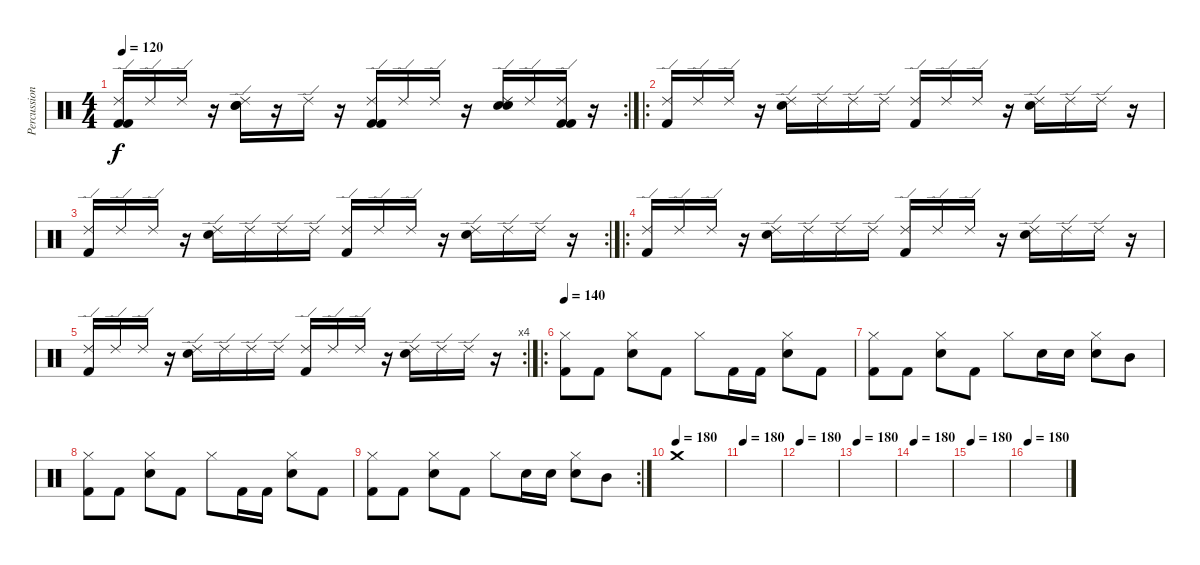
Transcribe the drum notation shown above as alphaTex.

\track ("Percussions" "Percussion") {instrument percussion}
\staff {score}
\articulation defaults
\rc 2
\ts (4 4)
\tempo 120
\clef neutral
\ks c
("Ride (edge) 2" "Kick (hit) 2" "Kick (hit) 2").16{dy f} "Ride (edge) 2".16 "Ride (edge) 2".16 r.16 ("Ride (edge) 2" "Electric Snare (hit)" "Electric Snare (hit)").16 r.16 "Ride (edge) 2".16 r.16 ("Ride (edge) 2" "Kick (hit) 2" "Kick (hit) 2").16 "Ride (edge) 2".16 "Ride (edge) 2".16 r.16 ("Ride (edge) 2" "Electric Snare (hit)" "Electric Snare (hit)").16 "Ride (edge) 2".16 ("Ride (edge) 2" "Kick (hit) 2" "Kick (hit) 2").16 r.16 |
\ro
("Ride (edge) 2" "Kick (hit) 2").16 "Ride (edge) 2".16 "Ride (edge) 2".16 r.16 ("Ride (edge) 2" "Electric Snare (hit)").16 "Ride (edge) 2".16 "Ride (edge) 2".16 "Ride (edge) 2".16 ("Ride (edge) 2" "Kick (hit) 2").16 "Ride (edge) 2".16 "Ride (edge) 2".16 r.16 ("Ride (edge) 2" "Electric Snare (hit)").16 "Ride (edge) 2".16 "Ride (edge) 2".16 r.16 |
\rc 2
("Ride (edge) 2" "Kick (hit) 2").16 "Ride (edge) 2".16 "Ride (edge) 2".16 r.16 ("Ride (edge) 2" "Electric Snare (hit)").16 "Ride (edge) 2".16 "Ride (edge) 2".16 "Ride (edge) 2".16 ("Ride (edge) 2" "Kick (hit) 2").16 "Ride (edge) 2".16 "Ride (edge) 2".16 r.16 ("Ride (edge) 2" "Electric Snare (hit)").16 "Ride (edge) 2".16 "Ride (edge) 2".16 r.16 |
\ro
("Ride (edge) 2" "Kick (hit) 2").16 "Ride (edge) 2".16 "Ride (edge) 2".16 r.16 ("Ride (edge) 2" "Electric Snare (hit)").16 "Ride (edge) 2".16 "Ride (edge) 2".16 "Ride (edge) 2".16 ("Ride (edge) 2" "Kick (hit) 2").16 "Ride (edge) 2".16 "Ride (edge) 2".16 r.16 ("Ride (edge) 2" "Electric Snare (hit)").16 "Ride (edge) 2".16 "Ride (edge) 2".16 r.16 |
\rc 4
("Ride (edge) 2" "Kick (hit) 2").16 "Ride (edge) 2".16 "Ride (edge) 2".16 r.16 ("Ride (edge) 2" "Electric Snare (hit)").16 "Ride (edge) 2".16 "Ride (edge) 2".16 "Ride (edge) 2".16 ("Ride (edge) 2" "Kick (hit) 2").16 "Ride (edge) 2".16 "Ride (edge) 2".16 r.16 ("Ride (edge) 2" "Electric Snare (hit)").16 "Ride (edge) 2".16 "Ride (edge) 2".16 r.16 |
\ro
\tempo 140
("Kick (hit) 2" "Hi-Hat (closed)").8 "Kick (hit) 2".8 ("Electric Snare (hit)" "Hi-Hat (closed)").8 "Kick (hit) 2".8 "Hi-Hat (closed)".8 "Kick (hit) 2".16 "Kick (hit) 2".16 ("Electric Snare (hit)" "Hi-Hat (closed)").8 "Kick (hit) 2".8 |
("Kick (hit) 2" "Hi-Hat (closed)").8 "Kick (hit) 2".8 ("Electric Snare (hit)" "Hi-Hat (closed)").8 "Kick (hit) 2".8 "Hi-Hat (closed)".8 "Electric Snare (hit)".16 "Electric Snare (hit)".16 ("Snare (hit) 2" "Hi-Hat (closed)").8 "Mid Tom (hit)".8 |
("Kick (hit) 2" "Hi-Hat (closed)").8 "Kick (hit) 2".8 ("Electric Snare (hit)" "Hi-Hat (closed)").8 "Kick (hit) 2".8 "Hi-Hat (closed)".8 "Kick (hit) 2".16 "Kick (hit) 2".16 ("Electric Snare (hit)" "Hi-Hat (closed)").8 "Kick (hit) 2".8 |
\rc 2
("Kick (hit) 2" "Hi-Hat (closed)").8 "Kick (hit) 2".8 ("Electric Snare (hit)" "Hi-Hat (closed)").8 "Kick (hit) 2".8 "Hi-Hat (closed)".8 "Electric Snare (hit)".16 "Electric Snare (hit)".16 ("Snare (hit) 2" "Hi-Hat (closed)").8 "Mid Tom (hit)".8 |
\tempo (180)
"Crash medium (hit)".1 |
\tempo 180
|
\tempo 180
|
\tempo 180
|
\tempo 180
|
\tempo 180
|
\tempo 180
